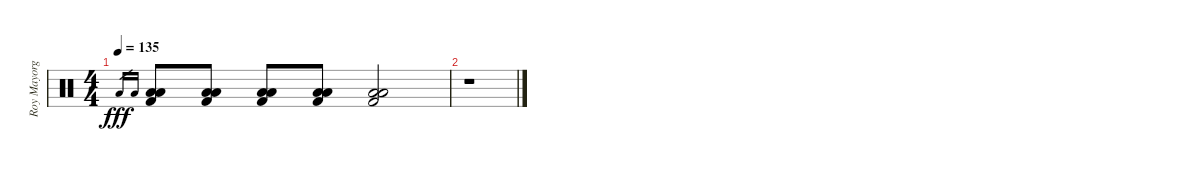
\track ("Roy Mayorga" "Roy Mayorg") {instrument percussion}
\staff {score}
\articulation defaults
\ts (4 4)
\tempo 135
\clef neutral
\ks c "Low Tom (hit)".16{gr dy fff} "Low Floor Tom (hit)".16{gr}
("Low Tom (hit)" "Low Floor Tom (hit)" "Kick (hit) 2").8 ("Low Tom (hit)" "Low Floor Tom (hit)" "Kick (hit) 2").8 ("Low Tom (hit)" "Low Floor Tom (hit)" "Kick (hit) 2").8 ("Low Tom (hit)" "Low Floor Tom (hit)" "Kick (hit) 2").8 ("Low Tom (hit)" "Low Floor Tom (hit)" "Kick (hit) 2").2 |
r.1
